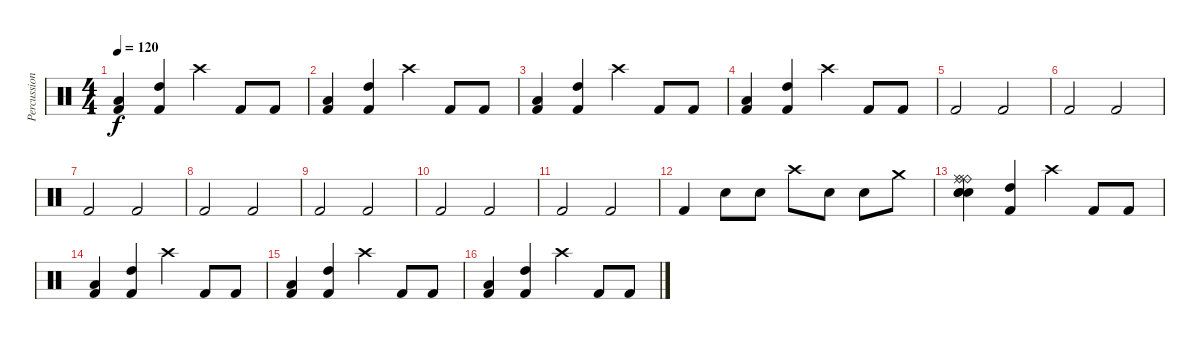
\track ("Percussion" "Percussion") {instrument percussion}
\staff {score}
\articulation defaults
\ts (4 4)
\tempo 120
\clef neutral
\ks c
("Low Floor Tom (hit)" "Kick (hit) 2").4{dy f} ("High Tom (hit)" "Kick (hit) 2").4 "Crash high (hit)".4 "Kick (hit) 2".8 "Kick (hit) 2".8 |
("Low Floor Tom (hit)" "Kick (hit) 2").4 ("High Tom (hit)" "Kick (hit) 2").4 "Crash high (hit)".4 "Kick (hit) 2".8 "Kick (hit) 2".8 |
("Low Floor Tom (hit)" "Kick (hit) 2").4 ("High Tom (hit)" "Kick (hit) 2").4 "Crash high (hit)".4 "Kick (hit) 2".8 "Kick (hit) 2".8 |
("Low Floor Tom (hit)" "Kick (hit) 2").4 ("High Tom (hit)" "Kick (hit) 2").4 "Crash high (hit)".4 "Kick (hit) 2".8 "Kick (hit) 2".8 |
"Kick (hit) 2".2 "Kick (hit) 2".2 |
"Kick (hit) 2".2 "Kick (hit) 2".2 |
"Kick (hit) 2".2 "Kick (hit) 2".2 |
"Kick (hit) 2".2 "Kick (hit) 2".2 |
"Kick (hit) 2".2 "Kick (hit) 2".2 |
"Kick (hit) 2".2 "Kick (hit) 2".2 |
"Kick (hit) 2".2 "Kick (hit) 2".2 |
"Kick (hit) 2".4 "Electric Snare (hit)".8 "Electric Snare (hit)".8 "Crash high (hit)".8 "Electric Snare (hit)".8 "Electric Snare (hit)".8 "Crash medium (hit)".8 |
("Ride (bell)" "Ride (middle)" "Electric Snare (hit)" "Electric Snare (hit)" "Ride (bell)" "Electric Snare (hit)").4 ("High Tom (hit)" "Kick (hit) 2").4 "Crash high (hit)".4 "Kick (hit) 2".8 "Kick (hit) 2".8 |
("Low Floor Tom (hit)" "Kick (hit) 2").4 ("High Tom (hit)" "Kick (hit) 2").4 "Crash high (hit)".4 "Kick (hit) 2".8 "Kick (hit) 2".8 |
("Low Floor Tom (hit)" "Kick (hit) 2").4 ("High Tom (hit)" "Kick (hit) 2").4 "Crash high (hit)".4 "Kick (hit) 2".8 "Kick (hit) 2".8 |
("Low Floor Tom (hit)" "Kick (hit) 2").4 ("High Tom (hit)" "Kick (hit) 2").4 "Crash high (hit)".4 "Kick (hit) 2".8 "Kick (hit) 2".8
